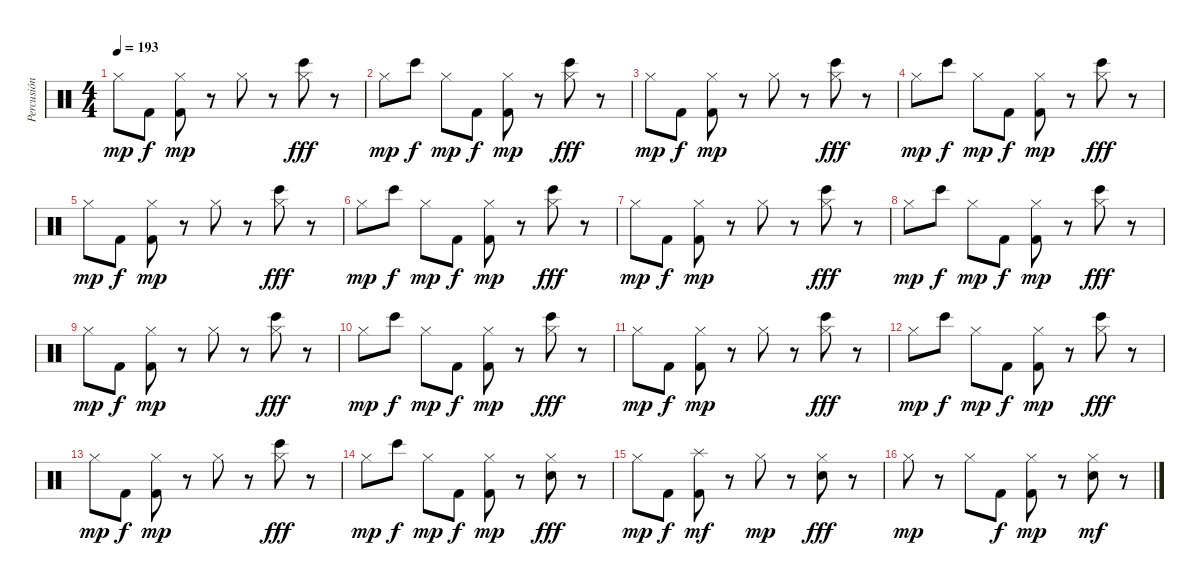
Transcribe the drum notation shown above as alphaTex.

\track ("Percusión" "Percusión") {instrument percussion}
\staff {score}
\articulation defaults
\ts (4 4)
\tempo 193
\clef neutral
\ks c "Hi-Hat (closed)".8{dy mp} "Kick (hit) 2".8{dy f}
("Hi-Hat (closed)" "Kick (hit) 2").8{dy mp} r.8 "Hi-Hat (closed)".8 r.8 ("Hi-Hat (closed)" "Bongo High (hit)").8{dy fff} r.8 |
"Hi-Hat (closed)".8{dy mp} "Bongo High (hit)".8{dy f} "Hi-Hat (closed)".8{dy mp} "Kick (hit) 2".8{dy f} ("Hi-Hat (closed)" "Kick (hit) 2").8{dy mp} r.8 ("Hi-Hat (closed)" "Bongo High (hit)").8{dy fff} r.8 |
"Hi-Hat (closed)".8{dy mp} "Kick (hit) 2".8{dy f} ("Hi-Hat (closed)" "Kick (hit) 2").8{dy mp} r.8 "Hi-Hat (closed)".8 r.8 ("Hi-Hat (closed)" "Bongo High (hit)").8{dy fff} r.8 |
"Hi-Hat (closed)".8{dy mp} "Bongo High (hit)".8{dy f} "Hi-Hat (closed)".8{dy mp} "Kick (hit) 2".8{dy f} ("Hi-Hat (closed)" "Kick (hit) 2").8{dy mp} r.8 ("Hi-Hat (closed)" "Bongo High (hit)").8{dy fff} r.8 |
"Hi-Hat (closed)".8{dy mp} "Kick (hit) 2".8{dy f} ("Hi-Hat (closed)" "Kick (hit) 2").8{dy mp} r.8 "Hi-Hat (closed)".8 r.8 ("Hi-Hat (closed)" "Bongo High (hit)").8{dy fff} r.8 |
"Hi-Hat (closed)".8{dy mp} "Bongo High (hit)".8{dy f} "Hi-Hat (closed)".8{dy mp} "Kick (hit) 2".8{dy f} ("Hi-Hat (closed)" "Kick (hit) 2").8{dy mp} r.8 ("Hi-Hat (closed)" "Bongo High (hit)").8{dy fff} r.8 |
"Hi-Hat (closed)".8{dy mp} "Kick (hit) 2".8{dy f} ("Hi-Hat (closed)" "Kick (hit) 2").8{dy mp} r.8 "Hi-Hat (closed)".8 r.8 ("Hi-Hat (closed)" "Bongo High (hit)").8{dy fff} r.8 |
"Hi-Hat (closed)".8{dy mp} "Bongo High (hit)".8{dy f} "Hi-Hat (closed)".8{dy mp} "Kick (hit) 2".8{dy f} ("Hi-Hat (closed)" "Kick (hit) 2").8{dy mp} r.8 ("Hi-Hat (closed)" "Bongo High (hit)").8{dy fff} r.8 |
"Hi-Hat (closed)".8{dy mp} "Kick (hit) 2".8{dy f} ("Hi-Hat (closed)" "Kick (hit) 2").8{dy mp} r.8 "Hi-Hat (closed)".8 r.8 ("Hi-Hat (closed)" "Bongo High (hit)").8{dy fff} r.8 |
"Hi-Hat (closed)".8{dy mp} "Bongo High (hit)".8{dy f} "Hi-Hat (closed)".8{dy mp} "Kick (hit) 2".8{dy f} ("Hi-Hat (closed)" "Kick (hit) 2").8{dy mp} r.8 ("Hi-Hat (closed)" "Bongo High (hit)").8{dy fff} r.8 |
"Hi-Hat (closed)".8{dy mp} "Kick (hit) 2".8{dy f} ("Hi-Hat (closed)" "Kick (hit) 2").8{dy mp} r.8 "Hi-Hat (closed)".8 r.8 ("Hi-Hat (closed)" "Bongo High (hit)").8{dy fff} r.8 |
"Hi-Hat (closed)".8{dy mp} "Bongo High (hit)".8{dy f} "Hi-Hat (closed)".8{dy mp} "Kick (hit) 2".8{dy f} ("Hi-Hat (closed)" "Kick (hit) 2").8{dy mp} r.8 ("Hi-Hat (closed)" "Bongo High (hit)").8{dy fff} r.8 |
"Hi-Hat (closed)".8{dy mp} "Kick (hit) 2".8{dy f} ("Hi-Hat (closed)" "Kick (hit) 2").8{dy mp} r.8 "Hi-Hat (closed)".8 r.8 ("Hi-Hat (closed)" "Bongo High (hit)").8{dy fff} r.8 |
"Hi-Hat (closed)".8{dy mp} "Bongo High (hit)".8{dy f} "Hi-Hat (closed)".8{dy mp} "Kick (hit) 2".8{dy f} ("Hi-Hat (closed)" "Kick (hit) 2").8{dy mp} r.8 ("Hi-Hat (closed)" "Electric Snare (hit)").8{dy fff} r.8 |
"Hi-Hat (closed)".8{dy mp} "Kick (hit) 2".8{dy f} ("Splash (hit)" "Kick (hit) 2").8{dy mf} r.8 "Hi-Hat (closed)".8{dy mp} r.8 ("Hi-Hat (closed)" "Electric Snare (hit)").8{dy fff} r.8 |
"Hi-Hat (closed)".8{dy mp} r.8 "Hi-Hat (closed)".8 "Kick (hit) 2".8{dy f} ("Hi-Hat (closed)" "Kick (hit) 2").8{dy mp} r.8 ("Hi-Hat (closed)" "Electric Snare (hit)").8{dy mf} r.8
